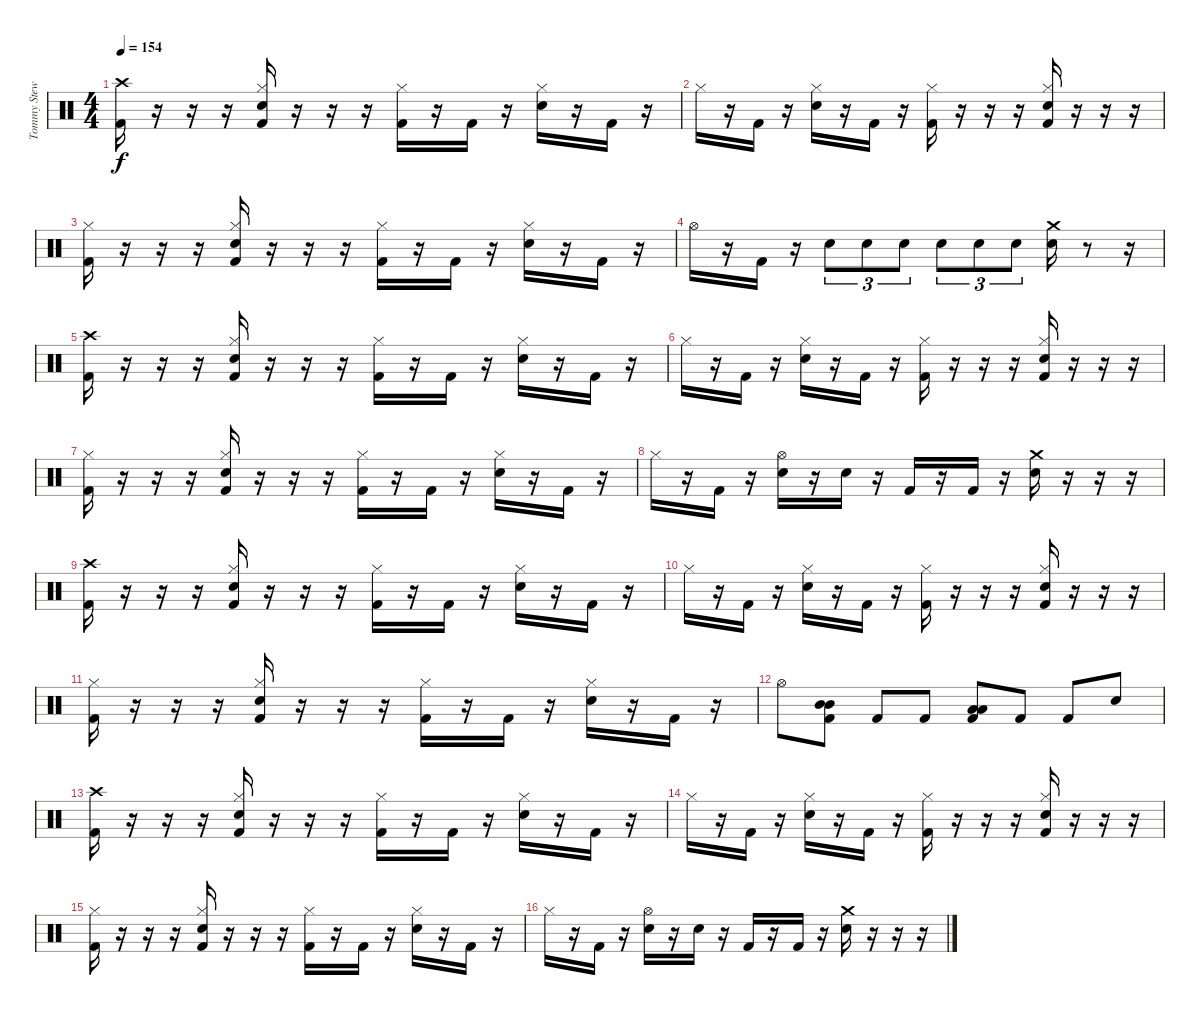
\track ("Tommy Stewart" "Tommy Stew") {instrument percussion}
\staff {score}
\articulation defaults
\ts (4 4)
\tempo 154
\clef neutral
\ks c
("Crash high (hit)" "Kick (hit) 2").16{dy f} r.16 r.16 r.16 ("Hi-Hat (closed)" "Snare (hit) 2" "Kick (hit) 2").16 r.16 r.16 r.16 ("Hi-Hat (closed)" "Kick (hit) 2").16 r.16 "Kick (hit) 2".16 r.16 ("Hi-Hat (closed)" "Snare (hit) 2").16 r.16 "Kick (hit) 2".16 r.16 |
"Hi-Hat (closed)".16 r.16 "Kick (hit) 2".16 r.16 ("Hi-Hat (closed)" "Snare (hit) 2").16 r.16 "Kick (hit) 2".16 r.16 ("Hi-Hat (closed)" "Kick (hit) 2").16 r.16 r.16 r.16 ("Hi-Hat (closed)" "Snare (hit) 2" "Kick (hit) 2").16 r.16 r.16 r.16 |
("Hi-Hat (closed)" "Kick (hit) 2").16 r.16 r.16 r.16 ("Hi-Hat (closed)" "Snare (hit) 2" "Kick (hit) 2").16 r.16 r.16 r.16 ("Hi-Hat (closed)" "Kick (hit) 2").16 r.16 "Kick (hit) 2".16 r.16 ("Hi-Hat (closed)" "Snare (hit) 2").16 r.16 "Kick (hit) 2".16 r.16 |
"Hi-Hat (open)".16 r.16 "Kick (hit) 2".16 r.16 "Snare (hit) 2".8{tu (3 2)} "Snare (hit) 2".8{tu (3 2)} "Snare (hit) 2".8{tu (3 2)} "Snare (hit) 2".8{tu (3 2)} "Snare (hit) 2".8{tu (3 2)} "Snare (hit) 2".8{tu (3 2)} ("Crash medium (hit)" "Snare (hit) 2").16 r.8 r.16 |
("Crash high (hit)" "Kick (hit) 2").16 r.16 r.16 r.16 ("Hi-Hat (closed)" "Snare (hit) 2" "Kick (hit) 2").16 r.16 r.16 r.16 ("Hi-Hat (closed)" "Kick (hit) 2").16 r.16 "Kick (hit) 2".16 r.16 ("Hi-Hat (closed)" "Snare (hit) 2").16 r.16 "Kick (hit) 2".16 r.16 |
"Hi-Hat (closed)".16 r.16 "Kick (hit) 2".16 r.16 ("Hi-Hat (closed)" "Snare (hit) 2").16 r.16 "Kick (hit) 2".16 r.16 ("Hi-Hat (closed)" "Kick (hit) 2").16 r.16 r.16 r.16 ("Hi-Hat (closed)" "Snare (hit) 2" "Kick (hit) 2").16 r.16 r.16 r.16 |
("Hi-Hat (closed)" "Kick (hit) 2").16 r.16 r.16 r.16 ("Hi-Hat (closed)" "Snare (hit) 2" "Kick (hit) 2").16 r.16 r.16 r.16 ("Hi-Hat (closed)" "Kick (hit) 2").16 r.16 "Kick (hit) 2".16 r.16 ("Hi-Hat (closed)" "Snare (hit) 2").16 r.16 "Kick (hit) 2".16 r.16 |
"Hi-Hat (closed)".16 r.16 "Kick (hit) 2".16 r.16 ("Hi-Hat (open)" "Snare (hit) 2").16 r.16 "Snare (hit) 2".16 r.16 "Kick (hit) 2".16 r.16 "Kick (hit) 2".16 r.16 ("Crash medium (hit)" "Snare (hit) 2").16 r.16 r.16 r.16 |
("Crash high (hit)" "Kick (hit) 2").16 r.16 r.16 r.16 ("Hi-Hat (closed)" "Snare (hit) 2" "Kick (hit) 2").16 r.16 r.16 r.16 ("Hi-Hat (closed)" "Kick (hit) 2").16 r.16 "Kick (hit) 2".16 r.16 ("Hi-Hat (closed)" "Snare (hit) 2").16 r.16 "Kick (hit) 2".16 r.16 |
"Hi-Hat (closed)".16 r.16 "Kick (hit) 2".16 r.16 ("Hi-Hat (closed)" "Snare (hit) 2").16 r.16 "Kick (hit) 2".16 r.16 ("Hi-Hat (closed)" "Kick (hit) 2").16 r.16 r.16 r.16 ("Hi-Hat (closed)" "Snare (hit) 2" "Kick (hit) 2").16 r.16 r.16 r.16 |
("Hi-Hat (closed)" "Kick (hit) 2").16 r.16 r.16 r.16 ("Hi-Hat (closed)" "Snare (hit) 2" "Kick (hit) 2").16 r.16 r.16 r.16 ("Hi-Hat (closed)" "Kick (hit) 2").16 r.16 "Kick (hit) 2".16 r.16 ("Hi-Hat (closed)" "Snare (hit) 2").16 r.16 "Kick (hit) 2".16 r.16 |
"Hi-Hat (open)".8 ("Mid Tom (hit)" "Mid Tom (hit)" "Kick (hit) 2").8 "Kick (hit) 2".8 "Kick (hit) 2".8 ("Low Tom (hit)" "Low Tom (hit)" "Kick (hit) 2").8 "Kick (hit) 2".8 "Kick (hit) 2".8 "Snare (hit) 2".8 |
("Crash high (hit)" "Kick (hit) 2").16 r.16 r.16 r.16 ("Hi-Hat (closed)" "Snare (hit) 2" "Kick (hit) 2").16 r.16 r.16 r.16 ("Hi-Hat (closed)" "Kick (hit) 2").16 r.16 "Kick (hit) 2".16 r.16 ("Hi-Hat (closed)" "Snare (hit) 2").16 r.16 "Kick (hit) 2".16 r.16 |
"Hi-Hat (closed)".16 r.16 "Kick (hit) 2".16 r.16 ("Hi-Hat (closed)" "Snare (hit) 2").16 r.16 "Kick (hit) 2".16 r.16 ("Hi-Hat (closed)" "Kick (hit) 2").16 r.16 r.16 r.16 ("Hi-Hat (closed)" "Snare (hit) 2" "Kick (hit) 2").16 r.16 r.16 r.16 |
("Hi-Hat (closed)" "Kick (hit) 2").16 r.16 r.16 r.16 ("Hi-Hat (closed)" "Snare (hit) 2" "Kick (hit) 2").16 r.16 r.16 r.16 ("Hi-Hat (closed)" "Kick (hit) 2").16 r.16 "Kick (hit) 2".16 r.16 ("Hi-Hat (closed)" "Snare (hit) 2").16 r.16 "Kick (hit) 2".16 r.16 |
"Hi-Hat (closed)".16 r.16 "Kick (hit) 2".16 r.16 ("Hi-Hat (open)" "Snare (hit) 2").16 r.16 "Snare (hit) 2".16 r.16 "Kick (hit) 2".16 r.16 "Kick (hit) 2".16 r.16 ("Crash medium (hit)" "Snare (hit) 2").16 r.16 r.16 r.16
